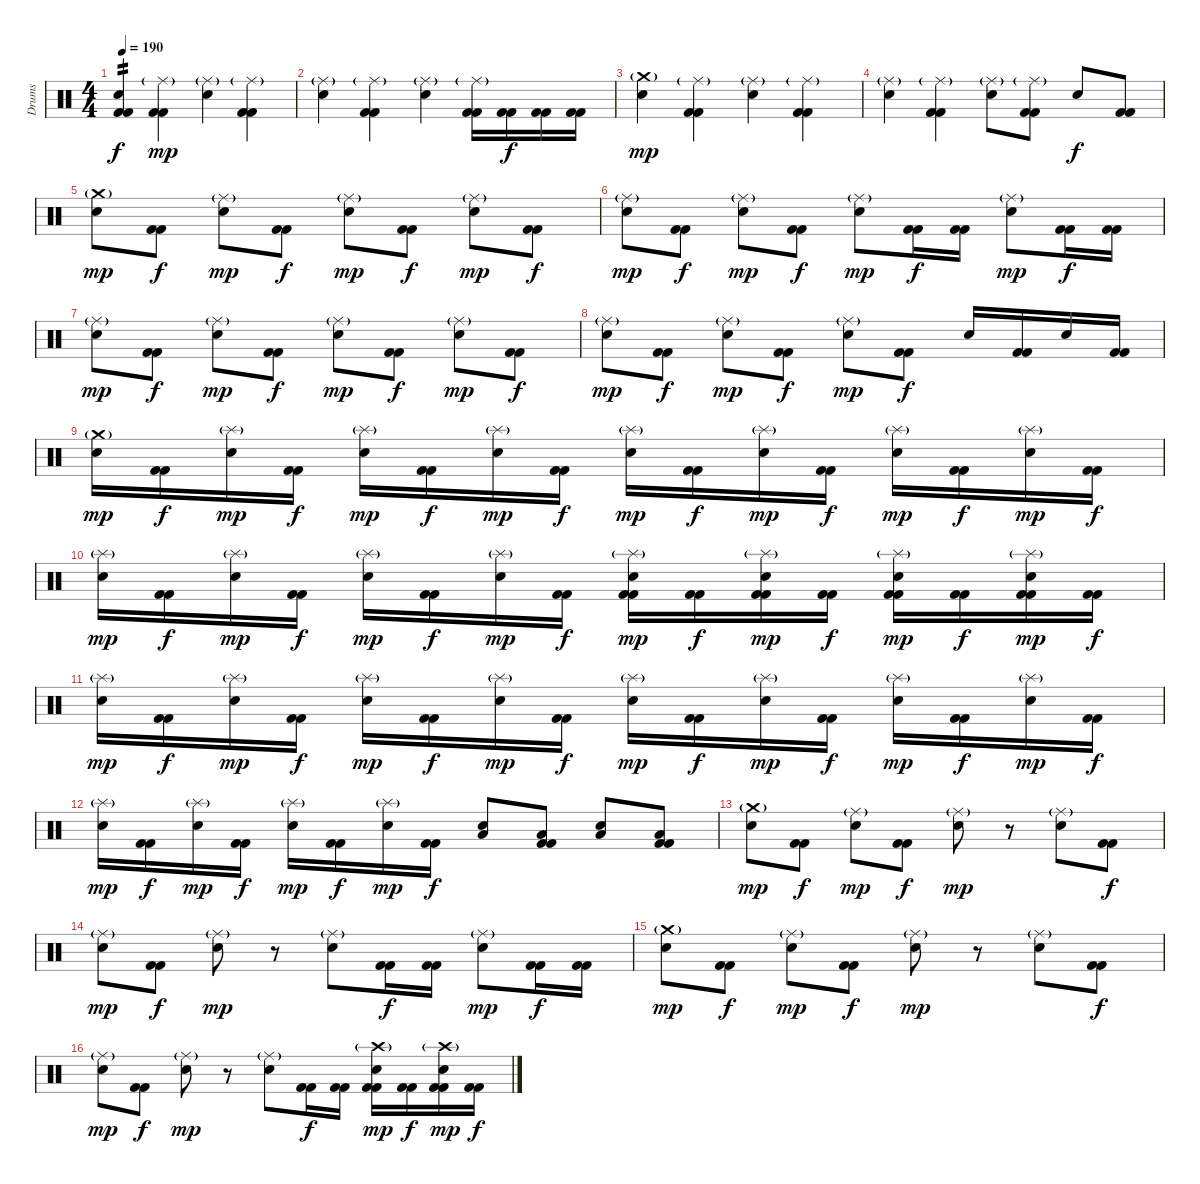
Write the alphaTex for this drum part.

\track ("Drums" "Drums") {instrument percussion}
\staff {score}
\articulation defaults
\ts (4 4)
\tempo 190
\clef neutral
\ks c
("Kick (hit) 2" "Electric Snare (hit)" "Kick (hit) 2").4{tp 2 dy f} ("Ride (middle)"{g} "Kick (hit) 2" "Kick (hit) 2").4{dy mp} ("Ride (middle)"{g} "Electric Snare (hit)").4 ("Ride (middle)"{g} "Kick (hit) 2" "Kick (hit) 2").4 |
("Ride (middle)"{g} "Electric Snare (hit)").4 ("Ride (middle)"{g} "Kick (hit) 2" "Kick (hit) 2").4 ("Ride (middle)"{g} "Electric Snare (hit)").4 ("Ride (middle)"{g} "Kick (hit) 2" "Kick (hit) 2").16 ("Kick (hit) 2" "Kick (hit) 2").16{dy f} ("Kick (hit) 2" "Kick (hit) 2").16 ("Kick (hit) 2" "Kick (hit) 2").16 |
("Crash medium (hit)"{g} "Electric Snare (hit)").4{dy mp} ("Ride (middle)"{g} "Kick (hit) 2" "Kick (hit) 2").4 ("Ride (middle)"{g} "Electric Snare (hit)").4 ("Ride (middle)"{g} "Kick (hit) 2" "Kick (hit) 2").4 |
("Ride (middle)"{g} "Electric Snare (hit)").4 ("Ride (middle)"{g} "Kick (hit) 2" "Kick (hit) 2").4 ("Ride (middle)"{g} "Electric Snare (hit)").8 ("Ride (middle)"{g} "Kick (hit) 2" "Kick (hit) 2").8 "Electric Snare (hit)".8{dy f} ("Kick (hit) 2" "Kick (hit) 2").8 |
("Crash medium (hit)"{g} "Electric Snare (hit)").8{dy mp} ("Kick (hit) 2" "Kick (hit) 2").8{dy f} ("Ride (middle)"{g} "Electric Snare (hit)").8{dy mp} ("Kick (hit) 2" "Kick (hit) 2").8{dy f} ("Ride (middle)"{g} "Electric Snare (hit)").8{dy mp} ("Kick (hit) 2" "Kick (hit) 2").8{dy f} ("Ride (middle)"{g} "Electric Snare (hit)").8{dy mp} ("Kick (hit) 2" "Kick (hit) 2").8{dy f} |
("Ride (middle)"{g} "Electric Snare (hit)").8{dy mp} ("Kick (hit) 2" "Kick (hit) 2").8{dy f} ("Ride (middle)"{g} "Electric Snare (hit)").8{dy mp} ("Kick (hit) 2" "Kick (hit) 2").8{dy f} ("Ride (middle)"{g} "Electric Snare (hit)").8{dy mp} ("Kick (hit) 2" "Kick (hit) 2").16{dy f} ("Kick (hit) 2" "Kick (hit) 2").16 ("Ride (middle)"{g} "Electric Snare (hit)").8{dy mp} ("Kick (hit) 2" "Kick (hit) 2").16{dy f} ("Kick (hit) 2" "Kick (hit) 2").16 |
("Ride (middle)"{g} "Electric Snare (hit)").8{dy mp} ("Kick (hit) 2" "Kick (hit) 2").8{dy f} ("Ride (middle)"{g} "Electric Snare (hit)").8{dy mp} ("Kick (hit) 2" "Kick (hit) 2").8{dy f} ("Ride (middle)"{g} "Electric Snare (hit)").8{dy mp} ("Kick (hit) 2" "Kick (hit) 2").8{dy f} ("Ride (middle)"{g} "Electric Snare (hit)").8{dy mp} ("Kick (hit) 2" "Kick (hit) 2").8{dy f} |
("Ride (middle)"{g} "Electric Snare (hit)").8{dy mp} ("Kick (hit) 2" "Kick (hit) 2").8{dy f} ("Ride (middle)"{g} "Electric Snare (hit)").8{dy mp} ("Kick (hit) 2" "Kick (hit) 2").8{dy f} ("Ride (middle)"{g} "Electric Snare (hit)").8{dy mp} ("Kick (hit) 2" "Kick (hit) 2").8{dy f} "Electric Snare (hit)".16 ("Kick (hit) 2" "Kick (hit) 2").16 "Electric Snare (hit)".16 ("Kick (hit) 2" "Kick (hit) 2").16 |
("Crash medium (hit)"{g} "Electric Snare (hit)").16{dy mp} ("Kick (hit) 2" "Kick (hit) 2").16{dy f} ("Splash (hit)"{g} "Electric Snare (hit)").16{dy mp} ("Kick (hit) 2" "Kick (hit) 2").16{dy f} ("Splash (hit)"{g} "Electric Snare (hit)").16{dy mp} ("Kick (hit) 2" "Kick (hit) 2").16{dy f} ("Splash (hit)"{g} "Electric Snare (hit)").16{dy mp} ("Kick (hit) 2" "Kick (hit) 2").16{dy f} ("Splash (hit)"{g} "Electric Snare (hit)").16{dy mp} ("Kick (hit) 2" "Kick (hit) 2").16{dy f} ("Splash (hit)"{g} "Electric Snare (hit)").16{dy mp} ("Kick (hit) 2" "Kick (hit) 2").16{dy f} ("Splash (hit)"{g} "Electric Snare (hit)").16{dy mp} ("Kick (hit) 2" "Kick (hit) 2").16{dy f} ("Splash (hit)"{g} "Electric Snare (hit)").16{dy mp} ("Kick (hit) 2" "Kick (hit) 2").16{dy f} |
("Splash (hit)"{g} "Electric Snare (hit)").16{dy mp} ("Kick (hit) 2" "Kick (hit) 2").16{dy f} ("Splash (hit)"{g} "Electric Snare (hit)").16{dy mp} ("Kick (hit) 2" "Kick (hit) 2").16{dy f} ("Splash (hit)"{g} "Electric Snare (hit)").16{dy mp} ("Kick (hit) 2" "Kick (hit) 2").16{dy f} ("Splash (hit)"{g} "Electric Snare (hit)").16{dy mp} ("Kick (hit) 2" "Kick (hit) 2").16{dy f} ("Splash (hit)"{g} "Kick (hit) 2" "Electric Snare (hit)" "Kick (hit) 2").16{dy mp} ("Kick (hit) 2" "Kick (hit) 2").16{dy f} ("Splash (hit)"{g} "Kick (hit) 2" "Electric Snare (hit)" "Kick (hit) 2").16{dy mp} ("Kick (hit) 2" "Kick (hit) 2").16{dy f} ("Splash (hit)"{g} "Kick (hit) 2" "Electric Snare (hit)" "Kick (hit) 2").16{dy mp} ("Kick (hit) 2" "Kick (hit) 2").16{dy f} ("Splash (hit)"{g} "Kick (hit) 2" "Electric Snare (hit)" "Kick (hit) 2").16{dy mp} ("Kick (hit) 2" "Kick (hit) 2").16{dy f} |
("Splash (hit)"{g} "Electric Snare (hit)").16{dy mp} ("Kick (hit) 2" "Kick (hit) 2").16{dy f} ("Splash (hit)"{g} "Electric Snare (hit)").16{dy mp} ("Kick (hit) 2" "Kick (hit) 2").16{dy f} ("Splash (hit)"{g} "Electric Snare (hit)").16{dy mp} ("Kick (hit) 2" "Kick (hit) 2").16{dy f} ("Splash (hit)"{g} "Electric Snare (hit)").16{dy mp} ("Kick (hit) 2" "Kick (hit) 2").16{dy f} ("Splash (hit)"{g} "Electric Snare (hit)").16{dy mp} ("Kick (hit) 2" "Kick (hit) 2").16{dy f} ("Splash (hit)"{g} "Electric Snare (hit)").16{dy mp} ("Kick (hit) 2" "Kick (hit) 2").16{dy f} ("Splash (hit)"{g} "Electric Snare (hit)").16{dy mp} ("Kick (hit) 2" "Kick (hit) 2").16{dy f} ("Splash (hit)"{g} "Electric Snare (hit)").16{dy mp} ("Kick (hit) 2" "Kick (hit) 2").16{dy f} |
("Splash (hit)"{g} "Electric Snare (hit)").16{dy mp} ("Kick (hit) 2" "Kick (hit) 2").16{dy f} ("Splash (hit)"{g} "Electric Snare (hit)").16{dy mp} ("Kick (hit) 2" "Kick (hit) 2").16{dy f} ("Splash (hit)"{g} "Electric Snare (hit)").16{dy mp} ("Kick (hit) 2" "Kick (hit) 2").16{dy f} ("Splash (hit)"{g} "Electric Snare (hit)").16{dy mp} ("Kick (hit) 2" "Kick (hit) 2").16{dy f} ("Low Floor Tom (hit)" "Electric Snare (hit)").8 ("Kick (hit) 2" "Low Floor Tom (hit)" "Kick (hit) 2").8 ("Low Floor Tom (hit)" "Electric Snare (hit)").8 ("Kick (hit) 2" "Low Floor Tom (hit)" "Kick (hit) 2").8 |
("Crash medium (hit)"{g} "Electric Snare (hit)").8{dy mp} ("Kick (hit) 2" "Kick (hit) 2").8{dy f} ("Ride (middle)"{g} "Electric Snare (hit)").8{dy mp} ("Kick (hit) 2" "Kick (hit) 2").8{dy f} ("Ride (middle)"{g} "Electric Snare (hit)").8{dy mp} r.8 ("Ride (middle)"{g} "Electric Snare (hit)").8 ("Kick (hit) 2" "Kick (hit) 2").8{dy f} |
("Ride (middle)"{g} "Electric Snare (hit)").8{dy mp} ("Kick (hit) 2" "Kick (hit) 2").8{dy f} ("Ride (middle)"{g} "Electric Snare (hit)").8{dy mp} r.8 ("Ride (middle)"{g} "Electric Snare (hit)").8 ("Kick (hit) 2" "Kick (hit) 2").16{dy f} ("Kick (hit) 2" "Kick (hit) 2").16 ("Ride (middle)"{g} "Electric Snare (hit)").8{dy mp} ("Kick (hit) 2" "Kick (hit) 2").16{dy f} ("Kick (hit) 2" "Kick (hit) 2").16 |
("Crash medium (hit)"{g} "Electric Snare (hit)").8{dy mp} ("Kick (hit) 2" "Kick (hit) 2").8{dy f} ("Ride (middle)"{g} "Electric Snare (hit)").8{dy mp} ("Kick (hit) 2" "Kick (hit) 2").8{dy f} ("Ride (middle)"{g} "Electric Snare (hit)").8{dy mp} r.8 ("Ride (middle)"{g} "Electric Snare (hit)").8 ("Kick (hit) 2" "Kick (hit) 2").8{dy f} |
("Ride (middle)"{g} "Electric Snare (hit)").8{dy mp} ("Kick (hit) 2" "Kick (hit) 2").8{dy f} ("Ride (middle)"{g} "Electric Snare (hit)").8{dy mp} r.8 ("Ride (middle)"{g} "Electric Snare (hit)").8 ("Kick (hit) 2" "Kick (hit) 2").16{dy f} ("Kick (hit) 2" "Kick (hit) 2").16 ("Crash high (hit)"{g} "Kick (hit) 2" "Electric Snare (hit)" "Kick (hit) 2").16{dy mp} ("Kick (hit) 2" "Kick (hit) 2").16{dy f} ("Crash high (hit)"{g} "Kick (hit) 2" "Electric Snare (hit)" "Kick (hit) 2").16{dy mp} ("Kick (hit) 2" "Kick (hit) 2").16{dy f}
